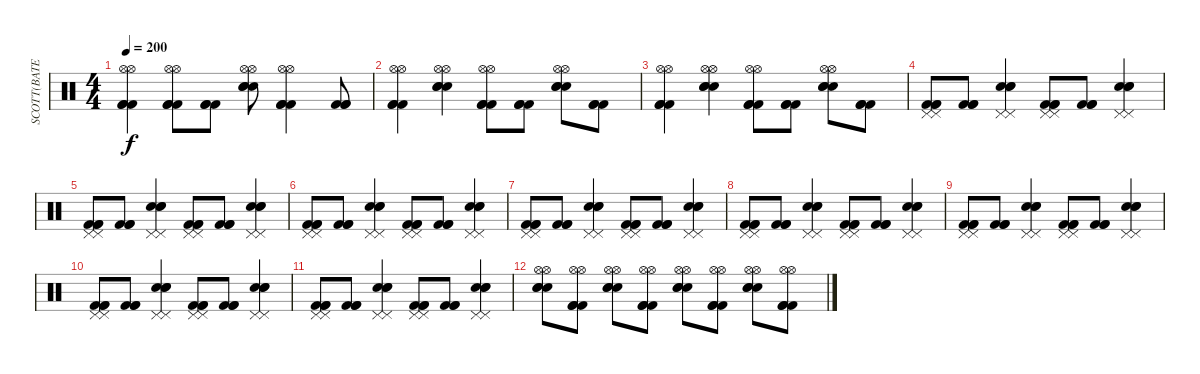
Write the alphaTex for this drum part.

\track ("SCOTT(BATERIA)" "SCOTT(BATE") {instrument percussion}
\staff {score}
\articulation defaults
\ts (4 4)
\tempo 200
\clef neutral
\ks c
("Kick (hit) 2" "Kick (hit) 2" "Kick (hit) 2" "Hi-Hat (open)" "Hi-Hat (open)").4{dy f} ("Kick (hit) 2" "Kick (hit) 2" "Kick (hit) 2" "Hi-Hat (open)" "Hi-Hat (open)").8 ("Kick (hit) 2" "Kick (hit) 2" "Kick (hit) 2").8 ("Snare (hit) 2" "Snare (hit) 2" "Snare (hit) 2" "Hi-Hat (open)" "Hi-Hat (open)").8 ("Kick (hit) 2" "Kick (hit) 2" "Kick (hit) 2" "Hi-Hat (open)" "Hi-Hat (open)").4 ("Kick (hit) 2" "Kick (hit) 2" "Kick (hit) 2").8 |
("Kick (hit) 2" "Kick (hit) 2" "Kick (hit) 2" "Hi-Hat (open)" "Hi-Hat (open)").4 ("Snare (hit) 2" "Snare (hit) 2" "Snare (hit) 2" "Hi-Hat (open)" "Hi-Hat (open)").4 ("Kick (hit) 2" "Kick (hit) 2" "Kick (hit) 2" "Hi-Hat (open)" "Hi-Hat (open)").8 ("Kick (hit) 2" "Kick (hit) 2" "Kick (hit) 2").8 ("Snare (hit) 2" "Snare (hit) 2" "Snare (hit) 2" "Hi-Hat (open)" "Hi-Hat (open)").8 ("Kick (hit) 2" "Kick (hit) 2" "Kick (hit) 2").8 |
("Kick (hit) 2" "Kick (hit) 2" "Kick (hit) 2" "Hi-Hat (open)" "Hi-Hat (open)").4 ("Snare (hit) 2" "Snare (hit) 2" "Snare (hit) 2" "Hi-Hat (open)" "Hi-Hat (open)").4 ("Kick (hit) 2" "Kick (hit) 2" "Kick (hit) 2" "Hi-Hat (open)" "Hi-Hat (open)").8 ("Kick (hit) 2" "Kick (hit) 2" "Kick (hit) 2").8 ("Snare (hit) 2" "Snare (hit) 2" "Snare (hit) 2" "Hi-Hat (open)" "Hi-Hat (open)").8 ("Kick (hit) 2" "Kick (hit) 2" "Kick (hit) 2").8 |
("Kick (hit) 2" "Kick (hit) 2" "Kick (hit) 2" "Pedal Hi-Hat (hit)" "Pedal Hi-Hat (hit)").8 ("Kick (hit) 2" "Kick (hit) 2" "Kick (hit) 2").8 ("Snare (hit) 2" "Snare (hit) 2" "Snare (hit) 2" "Pedal Hi-Hat (hit)" "Pedal Hi-Hat (hit)").4 ("Kick (hit) 2" "Kick (hit) 2" "Kick (hit) 2" "Pedal Hi-Hat (hit)" "Pedal Hi-Hat (hit)").8 ("Kick (hit) 2" "Kick (hit) 2" "Kick (hit) 2").8 ("Snare (hit) 2" "Snare (hit) 2" "Snare (hit) 2" "Pedal Hi-Hat (hit)" "Pedal Hi-Hat (hit)").4 |
("Kick (hit) 2" "Kick (hit) 2" "Kick (hit) 2" "Pedal Hi-Hat (hit)" "Pedal Hi-Hat (hit)").8 ("Kick (hit) 2" "Kick (hit) 2" "Kick (hit) 2").8 ("Snare (hit) 2" "Snare (hit) 2" "Snare (hit) 2" "Pedal Hi-Hat (hit)" "Pedal Hi-Hat (hit)").4 ("Kick (hit) 2" "Kick (hit) 2" "Kick (hit) 2" "Pedal Hi-Hat (hit)" "Pedal Hi-Hat (hit)").8 ("Kick (hit) 2" "Kick (hit) 2" "Kick (hit) 2").8 ("Snare (hit) 2" "Snare (hit) 2" "Snare (hit) 2" "Pedal Hi-Hat (hit)" "Pedal Hi-Hat (hit)").4 |
("Kick (hit) 2" "Kick (hit) 2" "Kick (hit) 2" "Pedal Hi-Hat (hit)" "Pedal Hi-Hat (hit)").8 ("Kick (hit) 2" "Kick (hit) 2" "Kick (hit) 2").8 ("Snare (hit) 2" "Snare (hit) 2" "Snare (hit) 2" "Pedal Hi-Hat (hit)" "Pedal Hi-Hat (hit)").4 ("Kick (hit) 2" "Kick (hit) 2" "Kick (hit) 2" "Pedal Hi-Hat (hit)" "Pedal Hi-Hat (hit)").8 ("Kick (hit) 2" "Kick (hit) 2" "Kick (hit) 2").8 ("Snare (hit) 2" "Snare (hit) 2" "Snare (hit) 2" "Pedal Hi-Hat (hit)" "Pedal Hi-Hat (hit)").4 |
("Kick (hit) 2" "Kick (hit) 2" "Kick (hit) 2" "Pedal Hi-Hat (hit)" "Pedal Hi-Hat (hit)").8 ("Kick (hit) 2" "Kick (hit) 2" "Kick (hit) 2").8 ("Snare (hit) 2" "Snare (hit) 2" "Snare (hit) 2" "Pedal Hi-Hat (hit)" "Pedal Hi-Hat (hit)").4 ("Kick (hit) 2" "Kick (hit) 2" "Kick (hit) 2" "Pedal Hi-Hat (hit)" "Pedal Hi-Hat (hit)").8 ("Kick (hit) 2" "Kick (hit) 2" "Kick (hit) 2").8 ("Snare (hit) 2" "Snare (hit) 2" "Snare (hit) 2" "Pedal Hi-Hat (hit)" "Pedal Hi-Hat (hit)").4 |
("Kick (hit) 2" "Kick (hit) 2" "Kick (hit) 2" "Pedal Hi-Hat (hit)" "Pedal Hi-Hat (hit)").8 ("Kick (hit) 2" "Kick (hit) 2" "Kick (hit) 2").8 ("Snare (hit) 2" "Snare (hit) 2" "Snare (hit) 2" "Pedal Hi-Hat (hit)" "Pedal Hi-Hat (hit)").4 ("Kick (hit) 2" "Kick (hit) 2" "Kick (hit) 2" "Pedal Hi-Hat (hit)" "Pedal Hi-Hat (hit)").8 ("Kick (hit) 2" "Kick (hit) 2" "Kick (hit) 2").8 ("Snare (hit) 2" "Snare (hit) 2" "Snare (hit) 2" "Pedal Hi-Hat (hit)" "Pedal Hi-Hat (hit)").4 |
("Kick (hit) 2" "Kick (hit) 2" "Kick (hit) 2" "Pedal Hi-Hat (hit)" "Pedal Hi-Hat (hit)").8 ("Kick (hit) 2" "Kick (hit) 2" "Kick (hit) 2").8 ("Snare (hit) 2" "Snare (hit) 2" "Snare (hit) 2" "Pedal Hi-Hat (hit)" "Pedal Hi-Hat (hit)").4 ("Kick (hit) 2" "Kick (hit) 2" "Kick (hit) 2" "Pedal Hi-Hat (hit)" "Pedal Hi-Hat (hit)").8 ("Kick (hit) 2" "Kick (hit) 2" "Kick (hit) 2").8 ("Snare (hit) 2" "Snare (hit) 2" "Snare (hit) 2" "Pedal Hi-Hat (hit)" "Pedal Hi-Hat (hit)").4 |
("Kick (hit) 2" "Kick (hit) 2" "Kick (hit) 2" "Pedal Hi-Hat (hit)" "Pedal Hi-Hat (hit)").8 ("Kick (hit) 2" "Kick (hit) 2" "Kick (hit) 2").8 ("Snare (hit) 2" "Snare (hit) 2" "Snare (hit) 2" "Pedal Hi-Hat (hit)" "Pedal Hi-Hat (hit)").4 ("Kick (hit) 2" "Kick (hit) 2" "Kick (hit) 2" "Pedal Hi-Hat (hit)" "Pedal Hi-Hat (hit)").8 ("Kick (hit) 2" "Kick (hit) 2" "Kick (hit) 2").8 ("Snare (hit) 2" "Snare (hit) 2" "Snare (hit) 2" "Pedal Hi-Hat (hit)" "Pedal Hi-Hat (hit)").4 |
("Kick (hit) 2" "Kick (hit) 2" "Kick (hit) 2" "Pedal Hi-Hat (hit)" "Pedal Hi-Hat (hit)").8 ("Kick (hit) 2" "Kick (hit) 2" "Kick (hit) 2").8 ("Snare (hit) 2" "Snare (hit) 2" "Snare (hit) 2" "Pedal Hi-Hat (hit)" "Pedal Hi-Hat (hit)").4 ("Kick (hit) 2" "Kick (hit) 2" "Kick (hit) 2" "Pedal Hi-Hat (hit)" "Pedal Hi-Hat (hit)").8 ("Kick (hit) 2" "Kick (hit) 2" "Kick (hit) 2").8 ("Snare (hit) 2" "Snare (hit) 2" "Snare (hit) 2" "Pedal Hi-Hat (hit)" "Pedal Hi-Hat (hit)").4 |
("Snare (hit) 2" "Snare (hit) 2" "Snare (hit) 2" "Hi-Hat (open)" "Hi-Hat (open)").8 ("Kick (hit) 2" "Kick (hit) 2" "Kick (hit) 2" "Hi-Hat (open)" "Hi-Hat (open)").8 ("Snare (hit) 2" "Snare (hit) 2" "Snare (hit) 2" "Hi-Hat (open)" "Hi-Hat (open)").8 ("Kick (hit) 2" "Kick (hit) 2" "Kick (hit) 2" "Hi-Hat (open)" "Hi-Hat (open)").8 ("Snare (hit) 2" "Snare (hit) 2" "Snare (hit) 2" "Hi-Hat (open)" "Hi-Hat (open)").8 ("Kick (hit) 2" "Kick (hit) 2" "Kick (hit) 2" "Hi-Hat (open)" "Hi-Hat (open)").8 ("Snare (hit) 2" "Snare (hit) 2" "Snare (hit) 2" "Hi-Hat (open)" "Hi-Hat (open)").8 ("Kick (hit) 2" "Kick (hit) 2" "Kick (hit) 2" "Hi-Hat (open)" "Hi-Hat (open)").8
